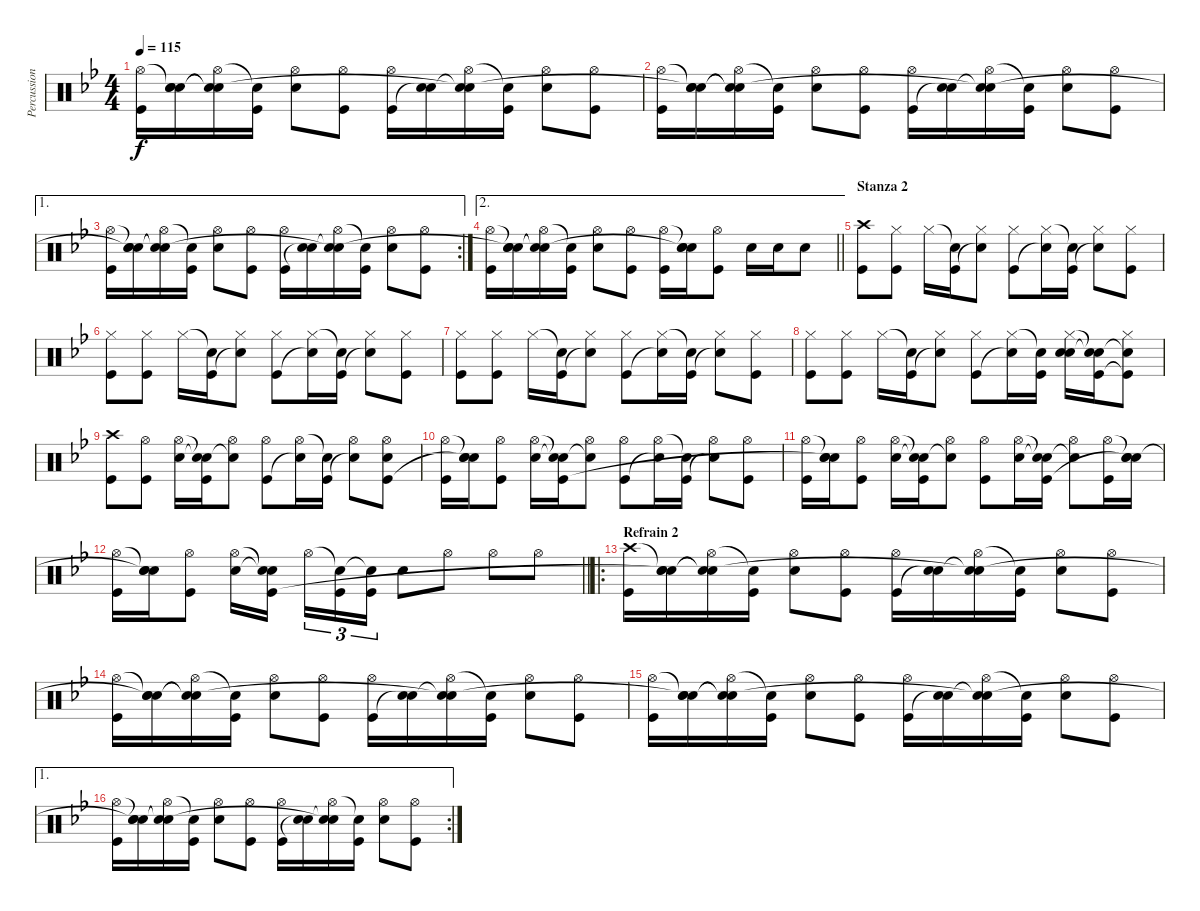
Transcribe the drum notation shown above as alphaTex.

\track ("Percussion" "Percussion") {instrument percussion}
\staff {score}
\articulation defaults
\ts (4 4)
\tempo 115
\clef neutral
\ks bb
("Hi-Hat (open)" "Kick (hit)").16{dy f} ("Snare (hit)"{t} "Electric Snare (hit)" "Snare (hit)"{t}).16 ("Hi-Hat (open)" "Snare (hit)"{t} "Snare (hit)"{t}).16 ("Snare (hit)"{t} "Kick (hit)").16 ("Hi-Hat (open)" "Electric Snare (hit)").8 ("Hi-Hat (open)" "Kick (hit)").8 ("Hi-Hat (open)" "Kick (hit)").16 ("Electric Snare (hit)" "Snare (hit)"{t}).16 ("Hi-Hat (open)" "Snare (hit)"{t} "Snare (hit)"{t}).16 ("Snare (hit)"{t} "Kick (hit)").16 ("Hi-Hat (open)" "Electric Snare (hit)").8 ("Hi-Hat (open)" "Kick (hit)").8 |
("Hi-Hat (open)" "Kick (hit)").16 ("Snare (hit)"{t} "Electric Snare (hit)" "Snare (hit)"{t}).16 ("Hi-Hat (open)" "Snare (hit)"{t} "Snare (hit)"{t}).16 ("Snare (hit)"{t} "Kick (hit)").16 ("Hi-Hat (open)" "Electric Snare (hit)").8 ("Hi-Hat (open)" "Kick (hit)").8 ("Hi-Hat (open)" "Kick (hit)").16 ("Electric Snare (hit)" "Snare (hit)"{t}).16 ("Hi-Hat (open)" "Snare (hit)"{t} "Snare (hit)"{t}).16 ("Snare (hit)"{t} "Kick (hit)").16 ("Hi-Hat (open)" "Electric Snare (hit)").8 ("Hi-Hat (open)" "Kick (hit)").8 |
\ae 1
\rc 2
("Hi-Hat (open)" "Kick (hit)").16 ("Snare (hit)"{t} "Electric Snare (hit)" "Snare (hit)"{t}).16 ("Hi-Hat (open)" "Snare (hit)"{t} "Snare (hit)"{t}).16 ("Snare (hit)"{t} "Kick (hit)").16 ("Hi-Hat (open)" "Electric Snare (hit)").8 ("Hi-Hat (open)" "Kick (hit)").8 ("Hi-Hat (open)" "Kick (hit)").16 ("Electric Snare (hit)" "Snare (hit)"{t}).16 ("Hi-Hat (open)" "Snare (hit)"{t} "Snare (hit)"{t}).16 ("Snare (hit)"{t} "Kick (hit)").16 ("Hi-Hat (open)" "Electric Snare (hit)").8 ("Hi-Hat (open)" "Kick (hit)").8 |
\ae 2
\barLineRight lightlight
("Hi-Hat (open)" "Kick (hit)").16 ("Snare (hit)"{t} "Electric Snare (hit)" "Snare (hit)"{t}).16 ("Hi-Hat (open)" "Snare (hit)"{t} "Snare (hit)"{t}).16 ("Snare (hit)"{t} "Kick (hit)").16 ("Hi-Hat (open)" "Electric Snare (hit)").8 ("Hi-Hat (open)" "Kick (hit)").8 ("Hi-Hat (open)" "Kick (hit)").16 ("Snare (hit)"{t} "Electric Snare (hit)" "Snare (hit)"{t}).16 ("Hi-Hat (open)" "Kick (hit)").8 "Electric Snare (hit)".16 "Electric Snare (hit)".16 "Electric Snare (hit)".8 |
\section ("" "Stanza 2")
("Crash high (hit)" "Kick (hit)").8 ("Hi-Hat (closed)" "Kick (hit)").8 "Hi-Hat (closed)".16 ("Snare (hit)"{t} "Kick (hit)").16 ("Hi-Hat (closed)" "Snare (hit)"{t}).8 ("Hi-Hat (closed)" "Kick (hit)").8 ("Hi-Hat (closed)" "Snare (hit)"{t}).16 ("Snare (hit)"{t} "Kick (hit)").16 ("Hi-Hat (closed)" "Snare (hit)"{t}).8 ("Hi-Hat (closed)" "Kick (hit)").8 |
("Hi-Hat (closed)" "Kick (hit)").8 ("Hi-Hat (closed)" "Kick (hit)").8 "Hi-Hat (closed)".16 ("Snare (hit)"{t} "Kick (hit)").16 ("Hi-Hat (closed)" "Snare (hit)"{t}).8 ("Hi-Hat (closed)" "Kick (hit)").8 ("Hi-Hat (closed)" "Snare (hit)"{t}).16 ("Snare (hit)"{t} "Kick (hit)").16 ("Hi-Hat (closed)" "Snare (hit)"{t}).8 ("Hi-Hat (closed)" "Kick (hit)").8 |
("Hi-Hat (closed)" "Kick (hit)").8 ("Hi-Hat (closed)" "Kick (hit)").8 "Hi-Hat (closed)".16 ("Snare (hit)"{t} "Kick (hit)").16 ("Hi-Hat (closed)" "Snare (hit)"{t}).8 ("Hi-Hat (closed)" "Kick (hit)").8 ("Hi-Hat (closed)" "Snare (hit)"{t}).16 ("Snare (hit)"{t} "Kick (hit)").16 ("Hi-Hat (closed)" "Snare (hit)"{t}).8 ("Hi-Hat (closed)" "Kick (hit)").8 |
("Hi-Hat (closed)" "Kick (hit)").8 ("Hi-Hat (closed)" "Kick (hit)").8 "Hi-Hat (closed)".16 ("Snare (hit)"{t} "Kick (hit)").16 ("Hi-Hat (closed)" "Snare (hit)"{t}).8 ("Hi-Hat (closed)" "Kick (hit)").8 ("Hi-Hat (closed)" "Snare (hit)"{t}).16 ("Snare (hit)"{t} "Kick (hit)").16 ("Hi-Hat (closed)" "Electric Snare (hit)" "Snare (hit)").16 ("Snare (hit)"{t} "Snare (hit)"{t} "Kick (hit)").16 ("Hi-Hat (closed)" "Electric Snare (hit)"{t} "Kick (hit)"{t}).8 |
("Crash high (hit)" "Kick (hit)").8 ("Hi-Hat (open)" "Kick (hit)").8 ("Hi-Hat (open)" "Electric Snare (hit)").16 ("Snare (hit)"{t} "Snare (hit)"{t} "Kick (hit)").16 ("Hi-Hat (open)" "Snare (hit)"{t}).8 ("Hi-Hat (open)" "Kick (hit)").8 ("Hi-Hat (open)" "Snare (hit)"{t}).16 ("Snare (hit)"{t} "Kick (hit)").16 ("Hi-Hat (open)" "Snare (hit)"{t}).8 ("Hi-Hat (open)" "Electric Snare (hit)" "Kick (hit)").8 |
("Hi-Hat (open)" "Kick (hit)").16 ("Snare (hit)"{t} "Electric Snare (hit)" "Snare (hit)"{t}).16 ("Hi-Hat (open)" "Kick (hit)").8 ("Hi-Hat (open)" "Electric Snare (hit)").16 ("Snare (hit)"{t} "Snare (hit)"{t} "Kick (hit)").16 ("Hi-Hat (open)" "Snare (hit)"{t}).8 ("Hi-Hat (open)" "Kick (hit)").8 ("Hi-Hat (open)" "Snare (hit)"{t}).16 ("Snare (hit)"{t} "Kick (hit)").16 ("Hi-Hat (open)" "Snare (hit)"{t}).8 ("Hi-Hat (open)" "Kick (hit)").8 |
("Hi-Hat (open)" "Kick (hit)").16 ("Snare (hit)"{t} "Electric Snare (hit)" "Snare (hit)"{t}).16 ("Hi-Hat (open)" "Kick (hit)").8 ("Hi-Hat (open)" "Electric Snare (hit)").16 ("Snare (hit)"{t} "Snare (hit)"{t} "Kick (hit)").16 ("Hi-Hat (open)" "Snare (hit)"{t}).8 ("Hi-Hat (open)" "Kick (hit)").8 ("Hi-Hat (open)" "Electric Snare (hit)").16 ("Snare (hit)"{t} "Snare (hit)"{t} "Kick (hit)").16 ("Hi-Hat (open)" "Snare (hit)"{t}).8 ("Hi-Hat (open)" "Kick (hit)").16 ("Snare (hit)"{t} "Electric Snare (hit)" "Snare (hit)"{t}).16 |
\barLineRight lightlight
("Hi-Hat (open)" "Kick (hit)").16 ("Snare (hit)"{t} "Electric Snare (hit)" "Snare (hit)"{t}).16 ("Hi-Hat (open)" "Kick (hit)").8 ("Hi-Hat (open)" "Electric Snare (hit)").16 ("Snare (hit)"{t} "Snare (hit)"{t} "Kick (hit)").16 "Hi-Hat (open)".16{tu (3 2)} ("Snare (hit)"{t} "Kick (hit)").16{tu (3 2)} ("Snare (hit)"{t} "Kick (hit)").16{tu (3 2)} "Electric Snare (hit)".8 "Hi-Hat (open)".8 "Hi-Hat (open)".8 "Hi-Hat (open)".8 |
\ro
\section ("" "Refrain 2")
("Crash high (hit)" "Kick (hit)").16 ("Snare (hit)"{t} "Electric Snare (hit)" "Snare (hit)"{t}).16 ("Hi-Hat (open)" "Snare (hit)"{t} "Snare (hit)"{t}).16 ("Snare (hit)"{t} "Kick (hit)").16 ("Hi-Hat (open)" "Electric Snare (hit)").8 ("Hi-Hat (open)" "Kick (hit)").8 ("Hi-Hat (open)" "Kick (hit)").16 ("Electric Snare (hit)" "Snare (hit)"{t}).16 ("Hi-Hat (open)" "Snare (hit)"{t} "Snare (hit)"{t}).16 ("Snare (hit)"{t} "Kick (hit)").16 ("Hi-Hat (open)" "Electric Snare (hit)").8 ("Hi-Hat (open)" "Kick (hit)").8 |
("Hi-Hat (open)" "Kick (hit)").16 ("Snare (hit)"{t} "Electric Snare (hit)" "Snare (hit)"{t}).16 ("Hi-Hat (open)" "Snare (hit)"{t} "Snare (hit)"{t}).16 ("Snare (hit)"{t} "Kick (hit)").16 ("Hi-Hat (open)" "Electric Snare (hit)").8 ("Hi-Hat (open)" "Kick (hit)").8 ("Hi-Hat (open)" "Kick (hit)").16 ("Electric Snare (hit)" "Snare (hit)"{t}).16 ("Hi-Hat (open)" "Snare (hit)"{t} "Snare (hit)"{t}).16 ("Snare (hit)"{t} "Kick (hit)").16 ("Hi-Hat (open)" "Electric Snare (hit)").8 ("Hi-Hat (open)" "Kick (hit)").8 |
("Hi-Hat (open)" "Kick (hit)").16 ("Snare (hit)"{t} "Electric Snare (hit)" "Snare (hit)"{t}).16 ("Hi-Hat (open)" "Snare (hit)"{t} "Snare (hit)"{t}).16 ("Snare (hit)"{t} "Kick (hit)").16 ("Hi-Hat (open)" "Electric Snare (hit)").8 ("Hi-Hat (open)" "Kick (hit)").8 ("Hi-Hat (open)" "Kick (hit)").16 ("Electric Snare (hit)" "Snare (hit)"{t}).16 ("Hi-Hat (open)" "Snare (hit)"{t} "Snare (hit)"{t}).16 ("Snare (hit)"{t} "Kick (hit)").16 ("Hi-Hat (open)" "Electric Snare (hit)").8 ("Hi-Hat (open)" "Kick (hit)").8 |
\ae 1
\rc 2
("Hi-Hat (open)" "Kick (hit)").16 ("Snare (hit)"{t} "Electric Snare (hit)" "Snare (hit)"{t}).16 ("Hi-Hat (open)" "Snare (hit)"{t} "Snare (hit)"{t}).16 ("Snare (hit)"{t} "Kick (hit)").16 ("Hi-Hat (open)" "Electric Snare (hit)").8 ("Hi-Hat (open)" "Kick (hit)").8 ("Hi-Hat (open)" "Kick (hit)").16 ("Electric Snare (hit)" "Snare (hit)"{t}).16 ("Hi-Hat (open)" "Snare (hit)"{t} "Snare (hit)"{t}).16 ("Snare (hit)"{t} "Kick (hit)").16 ("Hi-Hat (open)" "Electric Snare (hit)").8 ("Hi-Hat (open)" "Kick (hit)").8
